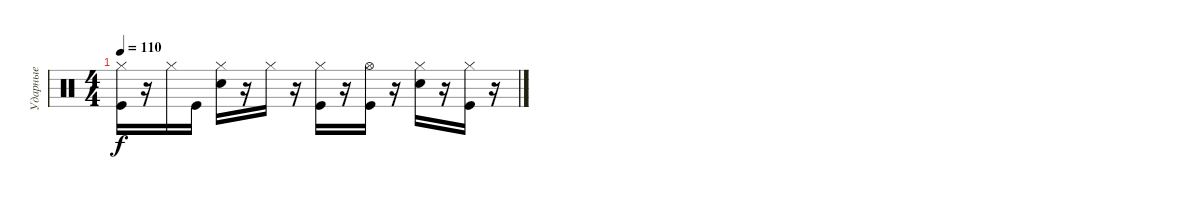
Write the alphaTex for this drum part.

\track ("Ударные" "Ударные") {instrument percussion}
\staff {score}
\articulation defaults
\ts (4 4)
\tempo 110
\clef neutral
\ks c
("Hi-Hat (closed)" "Kick (hit)").16{dy f} r.16 "Hi-Hat (closed)".16 "Kick (hit)".16 ("Hi-Hat (closed)" "Snare (hit) 2").16 r.16 "Hi-Hat (closed)".16 r.16 ("Hi-Hat (closed)" "Kick (hit)").16 r.16 ("Hi-Hat (open)" "Kick (hit)").16 r.16 ("Snare (hit) 2" "Hi-Hat (closed)").16 r.16 ("Hi-Hat (closed)" "Kick (hit)").16 r.16
